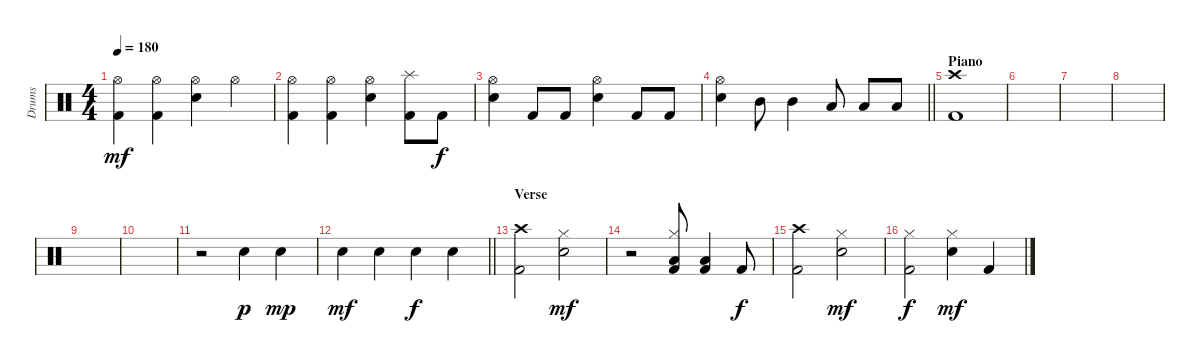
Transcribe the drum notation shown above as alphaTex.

\track ("Drums" "Drums") {instrument percussion}
\staff {score}
\articulation defaults
\ts (4 4)
\tempo 180
\clef neutral
\ks c
("Hi-Hat (open)" "Kick (hit) 2").4{dy mf} ("Hi-Hat (open)" "Kick (hit) 2").4 ("Hi-Hat (open)" "Snare (hit) 2").4 "Hi-Hat (open)".4 |
("Hi-Hat (open)" "Kick (hit) 2").4 ("Hi-Hat (open)" "Kick (hit) 2").4 ("Hi-Hat (open)" "Snare (hit) 2").4 ("Splash (hit)" "Kick (hit) 2").8 "Kick (hit) 2".8{dy f} |
("Hi-Hat (open)" "Snare (hit) 2").4 "Kick (hit) 2".8 "Kick (hit) 2".8 ("Hi-Hat (open)" "Snare (hit) 2").4 "Kick (hit) 2".8 "Kick (hit) 2".8 |
\barLineRight lightlight
("Hi-Hat (open)" "Snare (hit) 2").4 "Mid Tom (hit)".8 "Mid Tom (hit)".4 "Low Tom (hit)".8 "Low Tom (hit)".8 "Low Tom (hit)".8 |
\section ("" "Piano")
("Crash high (hit)" "Kick (hit) 2").1 |
|
|
|
|
|
r.2 "Snare (hit) 2".4{dy p} "Snare (hit) 2".4{dy mp} |
\barLineRight lightlight "Snare (hit) 2".4{dy mf} "Snare (hit) 2".4 "Snare (hit) 2".4{dy f} "Snare (hit) 2".4
|
\section ("" "Verse")
("Crash high (hit)" "Kick (hit) 2").2 ("Hi-Hat (closed)" "Snare (hit) 2").2{dy mf} |
r.2 ("Hi-Hat (closed)" "Low Floor Tom (hit)" "Kick (hit) 2").8 ("Low Floor Tom (hit)" "Kick (hit) 2").4 "Kick (hit) 2".8{dy f} |
("Crash high (hit)" "Kick (hit) 2").2 ("Hi-Hat (closed)" "Snare (hit) 2").2{dy mf} |
("Hi-Hat (closed)" "Kick (hit) 2").2{dy f} ("Hi-Hat (closed)" "Snare (hit) 2").4{dy mf} "Kick (hit) 2".4
